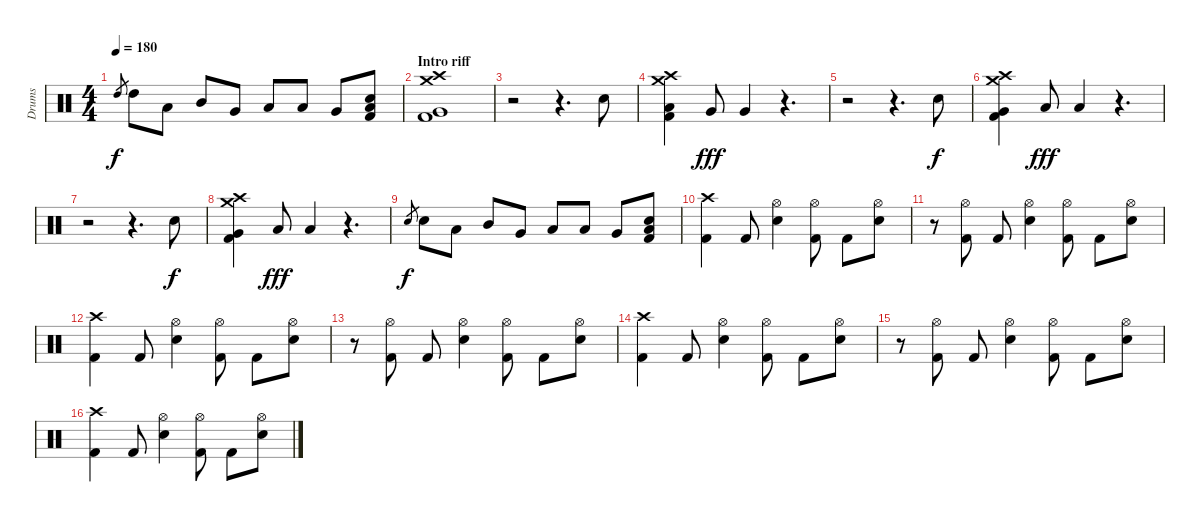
\track ("Drums" "Drums") {instrument percussion}
\staff {score}
\articulation defaults
\ts (4 4)
\tempo 180
\clef neutral
\ks c "High Tom (hit)".8{gr dy f} "High Tom (hit)".8 "Low Tom (hit)".8 "Mid Tom (hit)".8 "Very Low Tom (hit)".8 "Low Tom (hit)".8 "Low Floor Tom (hit)".8 "Very Low Tom (hit)".8
("Low Floor Tom (hit)" "Snare (hit) 2" "Kick (hit) 2").8 |
\section ("" "Intro riff")
("Crash medium (hit)" "Crash high (hit)" "Very Low Tom (hit)" "Kick (hit) 2").1 |
r.2 r.4{d} "Snare (hit) 2".8 |
("Crash medium (hit)" "Crash high (hit)" "Low Floor Tom (hit)" "Kick (hit) 2").4 "Very Low Tom (hit)".8{dy fff} "Very Low Tom (hit)".4 r.4{d} |
r.2 r.4{d} "Snare (hit) 2".8{dy f} |
("Crash medium (hit)" "Crash high (hit)" "Very Low Tom (hit)" "Kick (hit) 2").4 "Low Tom (hit)".8{dy fff} "Low Tom (hit)".4 r.4{d} |
r.2 r.4{d} "Snare (hit) 2".8{dy f} |
("Crash medium (hit)" "Crash high (hit)" "Very Low Tom (hit)" "Kick (hit) 2").4 "Low Tom (hit)".8{dy fff} "Low Tom (hit)".4 r.4{d} |
"Snare (hit) 2".8{gr dy f} "Snare (hit) 2".8 "Low Tom (hit)".8 "Mid Tom (hit)".8 "Very Low Tom (hit)".8 "Low Tom (hit)".8 "Low Floor Tom (hit)".8 "Very Low Tom (hit)".8 ("Low Floor Tom (hit)" "Snare (hit) 2" "Kick (hit) 2").8 |
("Crash high (hit)" "Kick (hit) 2").4 "Kick (hit) 2".8 ("Hi-Hat (open)" "Snare (hit) 2").4 ("Hi-Hat (open)" "Kick (hit) 2").8 "Kick (hit) 2".8 ("Hi-Hat (open)" "Snare (hit) 2").8 |
r.8 ("Hi-Hat (open)" "Kick (hit) 2").8 "Kick (hit) 2".8 ("Hi-Hat (open)" "Snare (hit) 2").4 ("Hi-Hat (open)" "Kick (hit) 2").8 "Kick (hit) 2".8 ("Hi-Hat (open)" "Snare (hit) 2").8 |
("Crash high (hit)" "Kick (hit) 2").4 "Kick (hit) 2".8 ("Hi-Hat (open)" "Snare (hit) 2").4 ("Hi-Hat (open)" "Kick (hit) 2").8 "Kick (hit) 2".8 ("Hi-Hat (open)" "Snare (hit) 2").8 |
r.8 ("Hi-Hat (open)" "Kick (hit) 2").8 "Kick (hit) 2".8 ("Hi-Hat (open)" "Snare (hit) 2").4 ("Hi-Hat (open)" "Kick (hit) 2").8 "Kick (hit) 2".8 ("Hi-Hat (open)" "Snare (hit) 2").8 |
("Crash high (hit)" "Kick (hit) 2").4 "Kick (hit) 2".8 ("Hi-Hat (open)" "Snare (hit) 2").4 ("Hi-Hat (open)" "Kick (hit) 2").8 "Kick (hit) 2".8 ("Hi-Hat (open)" "Snare (hit) 2").8 |
r.8 ("Hi-Hat (open)" "Kick (hit) 2").8 "Kick (hit) 2".8 ("Hi-Hat (open)" "Snare (hit) 2").4 ("Hi-Hat (open)" "Kick (hit) 2").8 "Kick (hit) 2".8 ("Hi-Hat (open)" "Snare (hit) 2").8 |
("Crash high (hit)" "Kick (hit) 2").4 "Kick (hit) 2".8 ("Hi-Hat (open)" "Snare (hit) 2").4 ("Hi-Hat (open)" "Kick (hit) 2").8 "Kick (hit) 2".8 ("Hi-Hat (open)" "Snare (hit) 2").8
